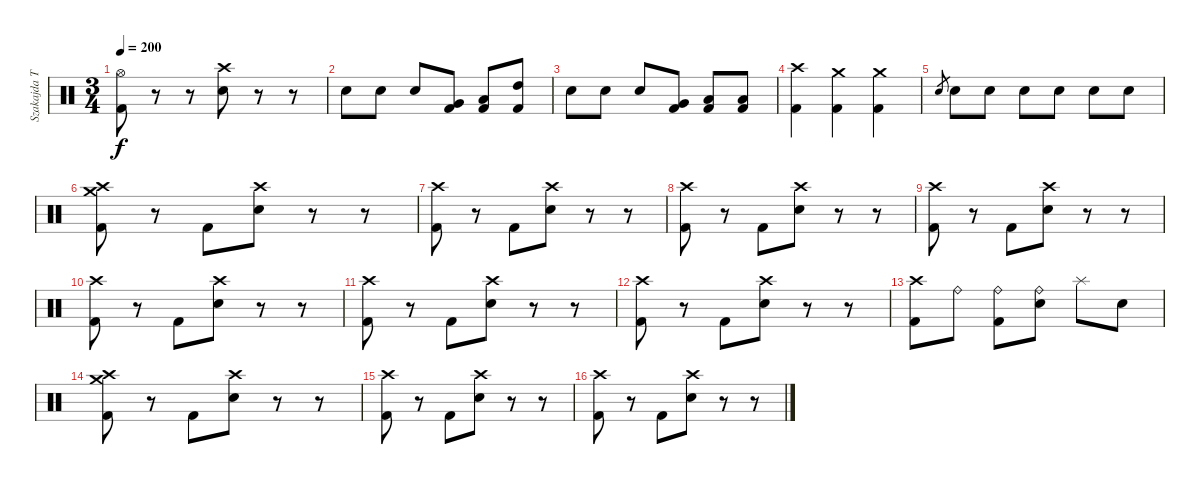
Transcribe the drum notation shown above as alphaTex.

\track ("Szakajda Tibi" "Szakajda T") {instrument percussion}
\staff {score}
\articulation defaults
\ts (3 4)
\tempo 200
\clef neutral
\ks c
("Hi-Hat (open)" "Kick (hit) 2").8{dy f} r.8 r.8 ("Crash high (hit)" "Electric Snare (hit)").8 r.8 r.8 |
"Electric Snare (hit)".8 "Electric Snare (hit)".8 "Electric Snare (hit)".8 ("Very Low Tom (hit)" "Kick (hit) 2").8 ("Low Tom (hit)" "Kick (hit) 2").8 ("High Tom (hit)" "Kick (hit) 2").8 |
"Electric Snare (hit)".8 "Electric Snare (hit)".8 "Electric Snare (hit)".8 ("Very Low Tom (hit)" "Kick (hit) 2").8 ("Low Tom (hit)" "Kick (hit) 2").8 ("Low Floor Tom (hit)" "Kick (hit) 2").8 |
("Crash high (hit)" "Kick (hit) 2").4 ("Crash medium (hit)" "Kick (hit) 2").4 ("Crash medium (hit)" "Kick (hit) 2").4 |
"Electric Snare (hit)".8{gr} "Electric Snare (hit)".8 "Electric Snare (hit)".8 "Electric Snare (hit)".8 "Electric Snare (hit)".8 "Electric Snare (hit)".8 "Electric Snare (hit)".8 |
("Crash high (hit)" "Crash medium (hit)" "Kick (hit) 2").8 r.8 "Kick (hit) 2".8 ("Crash high (hit)" "Electric Snare (hit)").8 r.8 r.8 |
("Crash high (hit)" "Kick (hit) 2").8 r.8 "Kick (hit) 2".8 ("Crash high (hit)" "Electric Snare (hit)").8 r.8 r.8 |
("Crash high (hit)" "Kick (hit) 2").8 r.8 "Kick (hit) 2".8 ("Crash high (hit)" "Electric Snare (hit)").8 r.8 r.8 |
("Crash high (hit)" "Kick (hit) 2").8 r.8 "Kick (hit) 2".8 ("Crash high (hit)" "Electric Snare (hit)").8 r.8 r.8 |
("Crash high (hit)" "Kick (hit) 2").8 r.8 "Kick (hit) 2".8 ("Crash high (hit)" "Electric Snare (hit)").8 r.8 r.8 |
("Crash high (hit)" "Kick (hit) 2").8 r.8 "Kick (hit) 2".8 ("Crash high (hit)" "Electric Snare (hit)").8 r.8 r.8 |
("Crash high (hit)" "Kick (hit) 2").8 r.8 "Kick (hit) 2".8 ("Crash high (hit)" "Electric Snare (hit)").8 r.8 r.8 |
("Crash high (hit)" "Kick (hit) 2").8 "Ride (bell)".8 ("Ride (bell)" "Kick (hit) 2").8 ("Ride (bell)" "Electric Snare (hit)").8 "Splash (hit)".8 "Electric Snare (hit)".8 |
("Crash high (hit)" "Crash medium (hit)" "Kick (hit) 2").8 r.8 "Kick (hit) 2".8 ("Crash high (hit)" "Electric Snare (hit)").8 r.8 r.8 |
("Crash high (hit)" "Kick (hit) 2").8 r.8 "Kick (hit) 2".8 ("Crash high (hit)" "Electric Snare (hit)").8 r.8 r.8 |
("Crash high (hit)" "Kick (hit) 2").8 r.8 "Kick (hit) 2".8 ("Crash high (hit)" "Electric Snare (hit)").8 r.8 r.8
